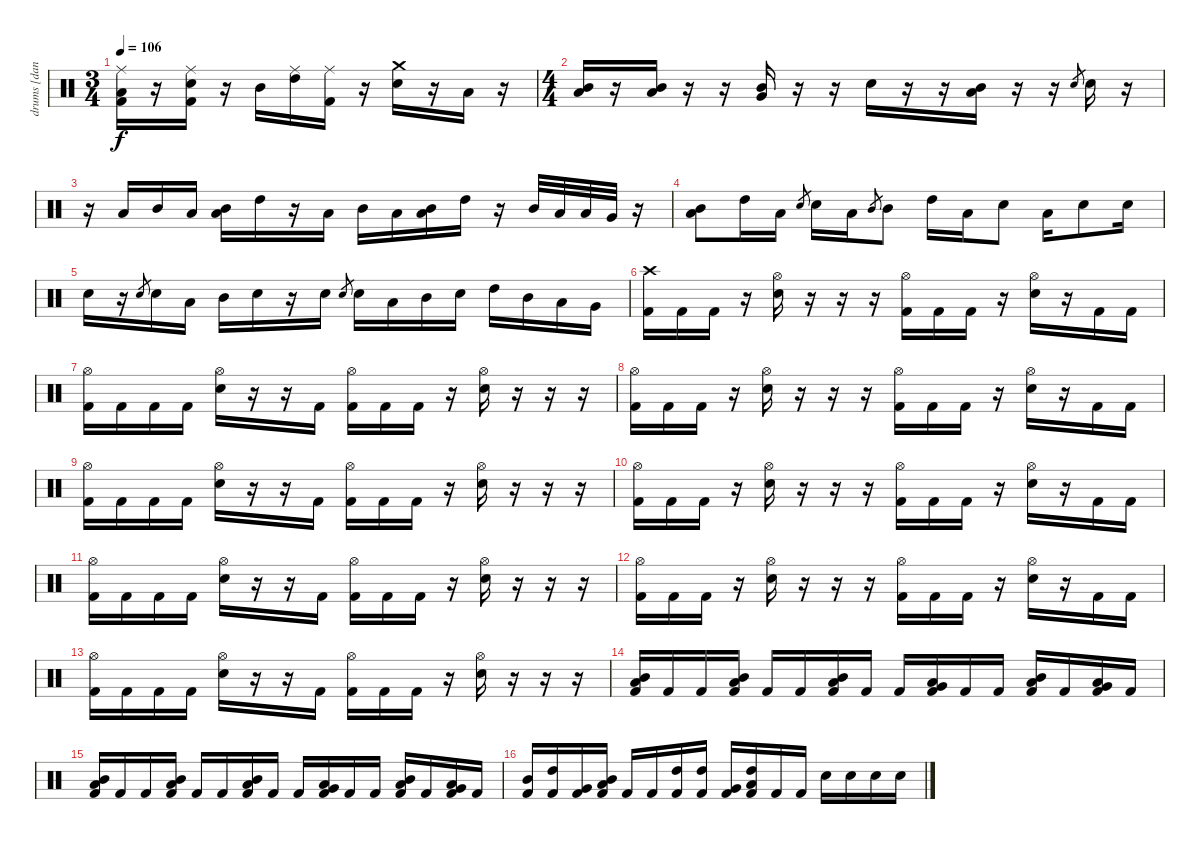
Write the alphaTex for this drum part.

\track ("drums [danny carey]" "drums [dan") {instrument percussion}
\staff {score}
\articulation defaults
\ts (3 4)
\tempo 106
\clef neutral
\ks c
("Ride (middle)" "Low Tom (hit)" "Kick (hit) 2").16{dy f} r.16 ("Ride (middle)" "Electric Snare (hit)" "Kick (hit) 2").16 r.16 "Mid Tom (hit)".16 ("Ride (middle)" "High Tom (hit)").16 ("Ride (middle)" "Kick (hit) 2").16 r.16 ("Crash medium (hit)" "Electric Snare (hit)").16 r.16 "Low Tom (hit)".16 r.16 |
\ts (4 4)
("Mid Tom (hit)" "Low Tom (hit)").16 r.16 ("Mid Tom (hit)" "Low Tom (hit)").16 r.16 r.16 ("Mid Tom (hit)" "Very Low Tom (hit)").16 r.16 r.16 "Electric Snare (hit)".16 r.16 r.16 ("Mid Tom (hit)" "Low Tom (hit)").16 r.16 r.16 "Electric Snare (hit)".8{gr} "Electric Snare (hit)".16 r.16 |
r.16 "Low Tom (hit)".16 "Mid Tom (hit)".16 "Low Tom (hit)".16 ("Mid Tom (hit)" "Low Tom (hit)").16 "High Tom (hit)".16 r.16 "Low Tom (hit)".16 "Mid Tom (hit)".16 "Low Tom (hit)".16 ("Mid Tom (hit)" "Low Tom (hit)").16 "High Tom (hit)".16 r.16 "Mid Tom (hit)".32 "Low Tom (hit)".32 "Low Tom (hit)".32 "Very Low Tom (hit)".32 r.16 |
("Mid Tom (hit)" "Low Tom (hit)").8 "High Tom (hit)".16 "Low Tom (hit)".16 "Electric Snare (hit)".8{gr} "Electric Snare (hit)".16 "Low Tom (hit)".16 "Mid Tom (hit)".8{gr} "Mid Tom (hit)".8 "High Tom (hit)".16 "Low Tom (hit)".16 "Electric Snare (hit)".8 "Low Tom (hit)".16 "Electric Snare (hit)".8 "Electric Snare (hit)".16 |
"Electric Snare (hit)".16 r.16 "Electric Snare (hit)".8{gr} "Electric Snare (hit)".16 "Low Tom (hit)".16 "Mid Tom (hit)".16 "Electric Snare (hit)".16 r.16 "Electric Snare (hit)".16 "Electric Snare (hit)".8{gr} "Electric Snare (hit)".16 "Low Tom (hit)".16 "Mid Tom (hit)".16 "Electric Snare (hit)".16 "High Tom (hit)".16 "Mid Tom (hit)".16 "Low Tom (hit)".16 "Very Low Tom (hit)".16 |
("Crash high (hit)" "Kick (hit) 2").16 "Kick (hit) 2".16 "Kick (hit) 2".16 r.16 ("Hi-Hat (open)" "Electric Snare (hit)").16 r.16 r.16 r.16 ("Hi-Hat (open)" "Kick (hit) 2").16 "Kick (hit) 2".16 "Kick (hit) 2".16 r.16 ("Hi-Hat (open)" "Electric Snare (hit)").16 r.16 "Kick (hit) 2".16 "Kick (hit) 2".16 |
("Hi-Hat (open)" "Kick (hit) 2").16 "Kick (hit) 2".16 "Kick (hit) 2".16 "Kick (hit) 2".16 ("Hi-Hat (open)" "Electric Snare (hit)").16 r.16 r.16 "Kick (hit) 2".16 ("Hi-Hat (open)" "Kick (hit) 2").16 "Kick (hit) 2".16 "Kick (hit) 2".16 r.16 ("Hi-Hat (open)" "Electric Snare (hit)").16 r.16 r.16 r.16 |
("Hi-Hat (open)" "Kick (hit) 2").16 "Kick (hit) 2".16 "Kick (hit) 2".16 r.16 ("Hi-Hat (open)" "Electric Snare (hit)").16 r.16 r.16 r.16 ("Hi-Hat (open)" "Kick (hit) 2").16 "Kick (hit) 2".16 "Kick (hit) 2".16 r.16 ("Hi-Hat (open)" "Electric Snare (hit)").16 r.16 "Kick (hit) 2".16 "Kick (hit) 2".16 |
("Hi-Hat (open)" "Kick (hit) 2").16 "Kick (hit) 2".16 "Kick (hit) 2".16 "Kick (hit) 2".16 ("Hi-Hat (open)" "Electric Snare (hit)").16 r.16 r.16 "Kick (hit) 2".16 ("Hi-Hat (open)" "Kick (hit) 2").16 "Kick (hit) 2".16 "Kick (hit) 2".16 r.16 ("Hi-Hat (open)" "Electric Snare (hit)").16 r.16 r.16 r.16 |
("Hi-Hat (open)" "Kick (hit) 2").16 "Kick (hit) 2".16 "Kick (hit) 2".16 r.16 ("Hi-Hat (open)" "Electric Snare (hit)").16 r.16 r.16 r.16 ("Hi-Hat (open)" "Kick (hit) 2").16 "Kick (hit) 2".16 "Kick (hit) 2".16 r.16 ("Hi-Hat (open)" "Electric Snare (hit)").16 r.16 "Kick (hit) 2".16 "Kick (hit) 2".16 |
("Hi-Hat (open)" "Kick (hit) 2").16 "Kick (hit) 2".16 "Kick (hit) 2".16 "Kick (hit) 2".16 ("Hi-Hat (open)" "Electric Snare (hit)").16 r.16 r.16 "Kick (hit) 2".16 ("Hi-Hat (open)" "Kick (hit) 2").16 "Kick (hit) 2".16 "Kick (hit) 2".16 r.16 ("Hi-Hat (open)" "Electric Snare (hit)").16 r.16 r.16 r.16 |
("Hi-Hat (open)" "Kick (hit) 2").16 "Kick (hit) 2".16 "Kick (hit) 2".16 r.16 ("Hi-Hat (open)" "Electric Snare (hit)").16 r.16 r.16 r.16 ("Hi-Hat (open)" "Kick (hit) 2").16 "Kick (hit) 2".16 "Kick (hit) 2".16 r.16 ("Hi-Hat (open)" "Electric Snare (hit)").16 r.16 "Kick (hit) 2".16 "Kick (hit) 2".16 |
("Hi-Hat (open)" "Kick (hit) 2").16 "Kick (hit) 2".16 "Kick (hit) 2".16 "Kick (hit) 2".16 ("Hi-Hat (open)" "Electric Snare (hit)").16 r.16 r.16 "Kick (hit) 2".16 ("Hi-Hat (open)" "Kick (hit) 2").16 "Kick (hit) 2".16 "Kick (hit) 2".16 r.16 ("Hi-Hat (open)" "Electric Snare (hit)").16 r.16 r.16 r.16 |
("Low Tom (hit)" "Mid Tom (hit)" "Kick (hit) 2").16 "Kick (hit) 2".16 "Kick (hit) 2".16 ("Mid Tom (hit)" "Low Tom (hit)" "Kick (hit) 2").16 "Kick (hit) 2".16 "Kick (hit) 2".16 ("Mid Tom (hit)" "Low Tom (hit)" "Kick (hit) 2").16 "Kick (hit) 2".16 "Kick (hit) 2".16 ("Low Tom (hit)" "Very Low Tom (hit)" "Kick (hit) 2").16 "Kick (hit) 2".16 "Kick (hit) 2".16 ("Mid Tom (hit)" "Low Tom (hit)" "Kick (hit) 2").16 "Kick (hit) 2".16 ("Low Tom (hit)" "Very Low Tom (hit)" "Kick (hit) 2").16 "Kick (hit) 2".16 |
("Low Tom (hit)" "Mid Tom (hit)" "Kick (hit) 2").16 "Kick (hit) 2".16 "Kick (hit) 2".16 ("Mid Tom (hit)" "Low Tom (hit)" "Kick (hit) 2").16 "Kick (hit) 2".16 "Kick (hit) 2".16 ("Mid Tom (hit)" "Low Tom (hit)" "Kick (hit) 2").16 "Kick (hit) 2".16 "Kick (hit) 2".16 ("Low Tom (hit)" "Very Low Tom (hit)" "Kick (hit) 2").16 "Kick (hit) 2".16 "Kick (hit) 2".16 ("Mid Tom (hit)" "Low Tom (hit)" "Kick (hit) 2").16 "Kick (hit) 2".16 ("Low Tom (hit)" "Very Low Tom (hit)" "Kick (hit) 2").16 "Kick (hit) 2".16 |
("Mid Tom (hit)" "Kick (hit) 2").16 ("High Tom (hit)" "Kick (hit) 2").16 ("Very Low Tom (hit)" "Kick (hit) 2").16 ("Mid Tom (hit)" "Low Tom (hit)" "Kick (hit) 2").16 "Kick (hit) 2".16 "Kick (hit) 2".16 ("High Tom (hit)" "Kick (hit) 2").16 ("High Tom (hit)" "Kick (hit) 2").16 ("Very Low Tom (hit)" "Kick (hit) 2").16 ("High Tom (hit)" "Low Tom (hit)" "Kick (hit) 2").16 "Kick (hit) 2".16 "Kick (hit) 2".16 "Electric Snare (hit)".16 "Electric Snare (hit)".16 "Electric Snare (hit)".16 "Electric Snare (hit)".16
